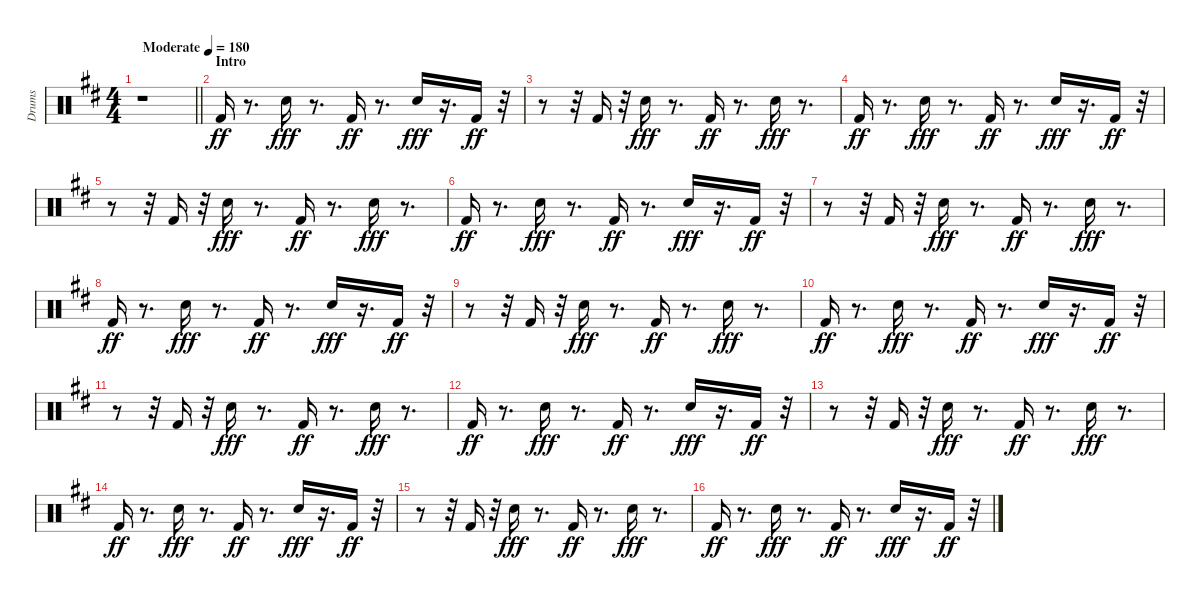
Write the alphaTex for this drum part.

\track ("Drums" "Drums") {instrument percussion}
\staff {score}
\articulation defaults
\ts (4 4)
\tempo (180 "Moderate")
\clef neutral
\barLineRight lightlight
\ks bminor
r.1{dy ff} |
\section ("" "Intro")
"Kick (hit) 2".16 r.8{d} "Snare (hit) 2".16{dy fff} r.8{d} "Kick (hit) 2".16{dy ff} r.8{d} "Snare (hit) 2".16{dy fff} r.16{d} "Kick (hit) 2".16{dy ff} r.32 |
r.8 r.32 "Kick (hit) 2".16 r.32 "Snare (hit) 2".16{dy fff} r.8{d} "Kick (hit) 2".16{dy ff} r.8{d} "Snare (hit) 2".16{dy fff} r.8{d} |
"Kick (hit) 2".16{dy ff} r.8{d} "Snare (hit) 2".16{dy fff} r.8{d} "Kick (hit) 2".16{dy ff} r.8{d} "Snare (hit) 2".16{dy fff} r.16{d} "Kick (hit) 2".16{dy ff} r.32 |
r.8 r.32 "Kick (hit) 2".16 r.32 "Snare (hit) 2".16{dy fff} r.8{d} "Kick (hit) 2".16{dy ff} r.8{d} "Snare (hit) 2".16{dy fff} r.8{d} |
"Kick (hit) 2".16{dy ff} r.8{d} "Snare (hit) 2".16{dy fff} r.8{d} "Kick (hit) 2".16{dy ff} r.8{d} "Snare (hit) 2".16{dy fff} r.16{d} "Kick (hit) 2".16{dy ff} r.32 |
r.8 r.32 "Kick (hit) 2".16 r.32 "Snare (hit) 2".16{dy fff} r.8{d} "Kick (hit) 2".16{dy ff} r.8{d} "Snare (hit) 2".16{dy fff} r.8{d} |
"Kick (hit) 2".16{dy ff} r.8{d} "Snare (hit) 2".16{dy fff} r.8{d} "Kick (hit) 2".16{dy ff} r.8{d} "Snare (hit) 2".16{dy fff} r.16{d} "Kick (hit) 2".16{dy ff} r.32 |
r.8 r.32 "Kick (hit) 2".16 r.32 "Snare (hit) 2".16{dy fff} r.8{d} "Kick (hit) 2".16{dy ff} r.8{d} "Snare (hit) 2".16{dy fff} r.8{d} |
"Kick (hit) 2".16{dy ff} r.8{d} "Snare (hit) 2".16{dy fff} r.8{d} "Kick (hit) 2".16{dy ff} r.8{d} "Snare (hit) 2".16{dy fff} r.16{d} "Kick (hit) 2".16{dy ff} r.32 |
r.8 r.32 "Kick (hit) 2".16 r.32 "Snare (hit) 2".16{dy fff} r.8{d} "Kick (hit) 2".16{dy ff} r.8{d} "Snare (hit) 2".16{dy fff} r.8{d} |
"Kick (hit) 2".16{dy ff} r.8{d} "Snare (hit) 2".16{dy fff} r.8{d} "Kick (hit) 2".16{dy ff} r.8{d} "Snare (hit) 2".16{dy fff} r.16{d} "Kick (hit) 2".16{dy ff} r.32 |
r.8 r.32 "Kick (hit) 2".16 r.32 "Snare (hit) 2".16{dy fff} r.8{d} "Kick (hit) 2".16{dy ff} r.8{d} "Snare (hit) 2".16{dy fff} r.8{d} |
"Kick (hit) 2".16{dy ff} r.8{d} "Snare (hit) 2".16{dy fff} r.8{d} "Kick (hit) 2".16{dy ff} r.8{d} "Snare (hit) 2".16{dy fff} r.16{d} "Kick (hit) 2".16{dy ff} r.32 |
r.8 r.32 "Kick (hit) 2".16 r.32 "Snare (hit) 2".16{dy fff} r.8{d} "Kick (hit) 2".16{dy ff} r.8{d} "Snare (hit) 2".16{dy fff} r.8{d} |
"Kick (hit) 2".16{dy ff} r.8{d} "Snare (hit) 2".16{dy fff} r.8{d} "Kick (hit) 2".16{dy ff} r.8{d} "Snare (hit) 2".16{dy fff} r.16{d} "Kick (hit) 2".16{dy ff} r.32
